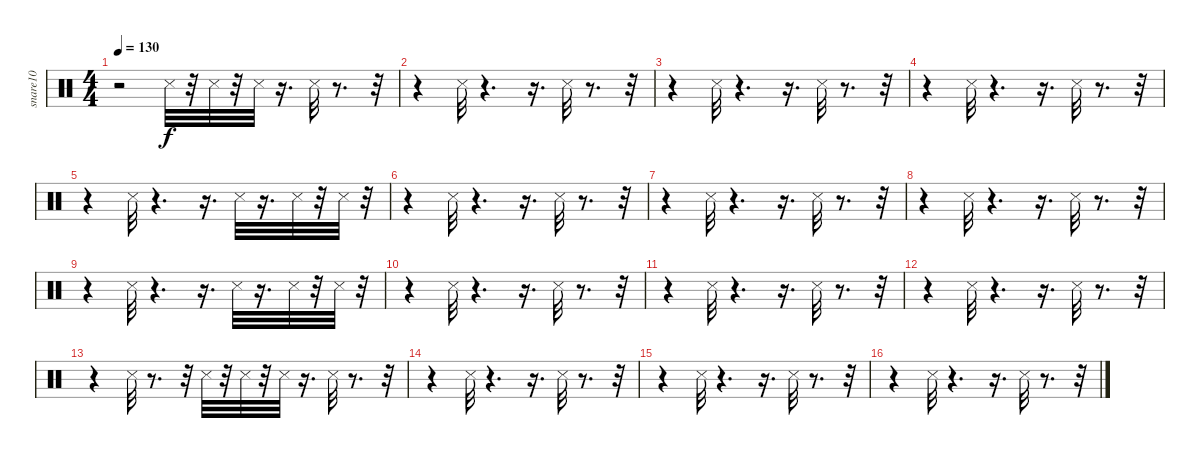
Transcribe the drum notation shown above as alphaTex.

\track ("snare10             " "snare10   ") {instrument percussion}
\staff {score}
\articulation defaults
\ts (4 4)
\tempo 130
\clef neutral
\ks c
r.2{dy f} "Metronome (hit)".32 r.32 "Metronome (hit)".32 r.32 "Metronome (hit)".32 r.16{d} "Metronome (hit)".32 r.8{d} r.32 |
r.4 "Metronome (hit)".32 r.4{d} r.16{d} "Metronome (hit)".32 r.8{d} r.32 |
r.4 "Metronome (hit)".32 r.4{d} r.16{d} "Metronome (hit)".32 r.8{d} r.32 |
r.4 "Metronome (hit)".32 r.4{d} r.16{d} "Metronome (hit)".32 r.8{d} r.32 |
r.4 "Metronome (hit)".32 r.4{d} r.16{d} "Metronome (hit)".32 r.16{d} "Metronome (hit)".32 r.32 "Metronome (hit)".32 r.32 |
r.4 "Metronome (hit)".32 r.4{d} r.16{d} "Metronome (hit)".32 r.8{d} r.32 |
r.4 "Metronome (hit)".32 r.4{d} r.16{d} "Metronome (hit)".32 r.8{d} r.32 |
r.4 "Metronome (hit)".32 r.4{d} r.16{d} "Metronome (hit)".32 r.8{d} r.32 |
r.4 "Metronome (hit)".32 r.4{d} r.16{d} "Metronome (hit)".32 r.16{d} "Metronome (hit)".32 r.32 "Metronome (hit)".32 r.32 |
r.4 "Metronome (hit)".32 r.4{d} r.16{d} "Metronome (hit)".32 r.8{d} r.32 |
r.4 "Metronome (hit)".32 r.4{d} r.16{d} "Metronome (hit)".32 r.8{d} r.32 |
r.4 "Metronome (hit)".32 r.4{d} r.16{d} "Metronome (hit)".32 r.8{d} r.32 |
r.4 "Metronome (hit)".32 r.8{d} r.32 "Metronome (hit)".32 r.32 "Metronome (hit)".32 r.32 "Metronome (hit)".32 r.16{d} "Metronome (hit)".32 r.8{d} r.32 |
r.4 "Metronome (hit)".32 r.4{d} r.16{d} "Metronome (hit)".32 r.8{d} r.32 |
r.4 "Metronome (hit)".32 r.4{d} r.16{d} "Metronome (hit)".32 r.8{d} r.32 |
r.4 "Metronome (hit)".32 r.4{d} r.16{d} "Metronome (hit)".32 r.8{d} r.32
